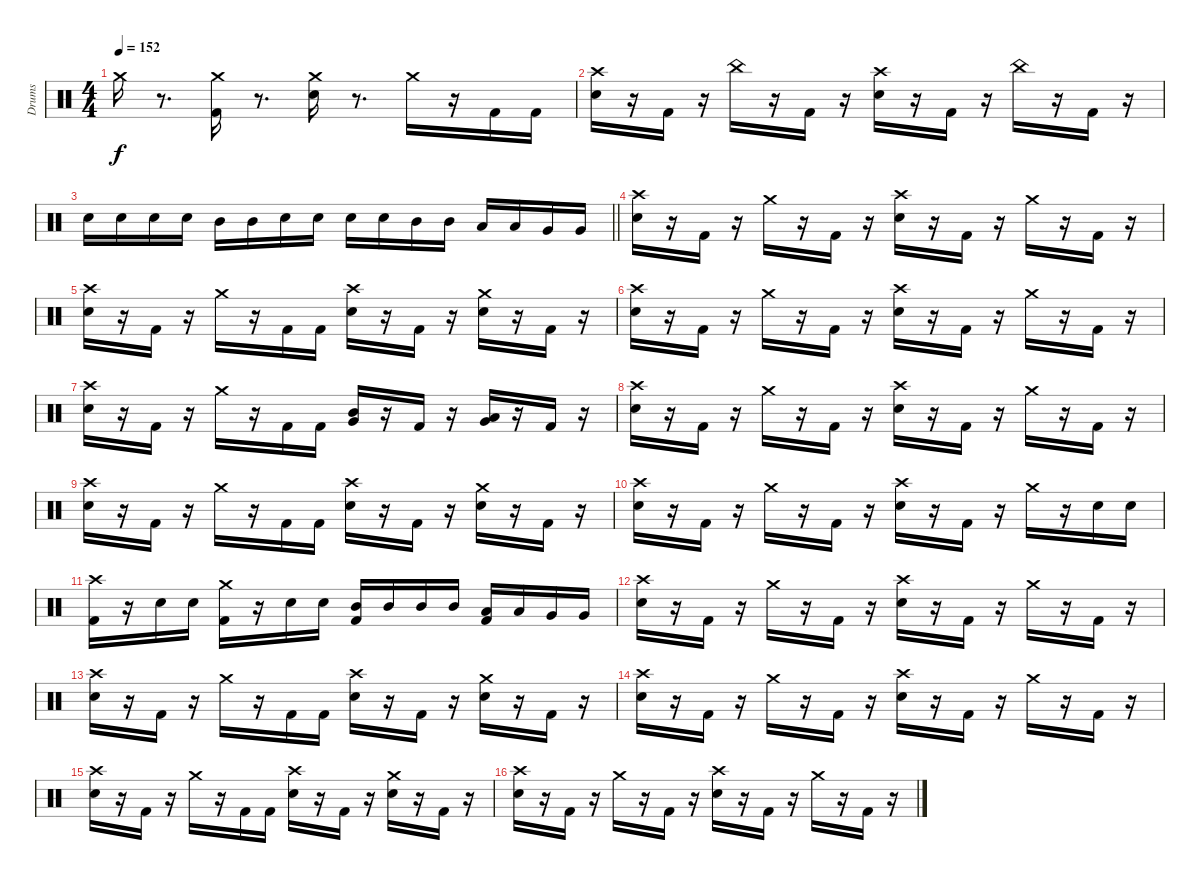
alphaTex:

\track ("Drums" "Drums") {instrument percussion}
\staff {score}
\articulation defaults
\ts (4 4)
\tempo 152
\clef neutral
\ks c "Crash medium (hit)".16{dy f}
r.8{d} ("Kick (hit) 2" "Crash medium (hit)").16 r.8{d} ("Snare (hit) 2" "Crash medium (hit)").16 r.8{d} "Crash medium (hit)".16 r.16 "Kick (hit) 2".16 "Kick (hit) 2".16 |
("Snare (hit) 2" "Crash high (hit)").16 r.16 "Kick (hit) 2".16 r.16 "China (hit)".16 r.16 "Kick (hit) 2".16 r.16 ("Snare (hit) 2" "Crash high (hit)").16 r.16 "Kick (hit) 2".16 r.16 "China (hit)".16 r.16 "Kick (hit) 2".16 r.16 |
\barLineRight lightlight "Snare (hit) 2".16 "Snare (hit) 2".16 "Snare (hit) 2".16 "Snare (hit) 2".16 "Mid Tom (hit)".16 "Mid Tom (hit)".16 "Snare (hit) 2".16 "Snare (hit) 2".16 "Snare (hit) 2".16 "Snare (hit) 2".16 "Mid Tom (hit)".16 "Mid Tom (hit)".16 "Low Tom (hit)".16 "Low Tom (hit)".16 "Very Low Tom (hit)".16 "Very Low Tom (hit)".16
|
\section ("" " ")
("Snare (hit) 2" "Crash high (hit)").16 r.16 "Kick (hit) 2".16 r.16 "Crash medium (hit)".16 r.16 "Kick (hit) 2".16 r.16 ("Snare (hit) 2" "Crash high (hit)").16 r.16 "Kick (hit) 2".16 r.16 "Crash medium (hit)".16 r.16 "Kick (hit) 2".16 r.16 |
("Snare (hit) 2" "Crash high (hit)").16 r.16 "Kick (hit) 2".16 r.16 "Crash medium (hit)".16 r.16 "Kick (hit) 2".16 "Kick (hit) 2".16 ("Snare (hit) 2" "Crash high (hit)").16 r.16 "Kick (hit) 2".16 r.16 ("Snare (hit) 2" "Crash medium (hit)").16 r.16 "Kick (hit) 2".16 r.16 |
("Snare (hit) 2" "Crash high (hit)").16 r.16 "Kick (hit) 2".16 r.16 "Crash medium (hit)".16 r.16 "Kick (hit) 2".16 r.16 ("Snare (hit) 2" "Crash high (hit)").16 r.16 "Kick (hit) 2".16 r.16 "Crash medium (hit)".16 r.16 "Kick (hit) 2".16 r.16 |
("Snare (hit) 2" "Crash high (hit)").16 r.16 "Kick (hit) 2".16 r.16 "Crash medium (hit)".16 r.16 "Kick (hit) 2".16 "Kick (hit) 2".16 ("Mid Tom (hit)" "Very Low Tom (hit)").16 r.16 "Kick (hit) 2".16 r.16 ("Low Tom (hit)" "Very Low Tom (hit)").16 r.16 "Kick (hit) 2".16 r.16 |
("Snare (hit) 2" "Crash high (hit)").16 r.16 "Kick (hit) 2".16 r.16 "Crash medium (hit)".16 r.16 "Kick (hit) 2".16 r.16 ("Snare (hit) 2" "Crash high (hit)").16 r.16 "Kick (hit) 2".16 r.16 "Crash medium (hit)".16 r.16 "Kick (hit) 2".16 r.16 |
("Snare (hit) 2" "Crash high (hit)").16 r.16 "Kick (hit) 2".16 r.16 "Crash medium (hit)".16 r.16 "Kick (hit) 2".16 "Kick (hit) 2".16 ("Snare (hit) 2" "Crash high (hit)").16 r.16 "Kick (hit) 2".16 r.16 ("Snare (hit) 2" "Crash medium (hit)").16 r.16 "Kick (hit) 2".16 r.16 |
("Snare (hit) 2" "Crash high (hit)").16 r.16 "Kick (hit) 2".16 r.16 "Crash medium (hit)".16 r.16 "Kick (hit) 2".16 r.16 ("Snare (hit) 2" "Crash high (hit)").16 r.16 "Kick (hit) 2".16 r.16 "Crash medium (hit)".16 r.16 "Snare (hit) 2".16 "Snare (hit) 2".16 |
("Kick (hit) 2" "Crash high (hit)").16 r.16 "Snare (hit) 2".16 "Snare (hit) 2".16 ("Kick (hit) 2" "Crash medium (hit)").16 r.16 "Snare (hit) 2".16 "Snare (hit) 2".16 ("Kick (hit) 2" "Mid Tom (hit)").16 "Mid Tom (hit)".16 "Mid Tom (hit)".16 "Mid Tom (hit)".16 ("Kick (hit) 2" "Low Tom (hit)").16 "Low Tom (hit)".16 "Very Low Tom (hit)".16 "Very Low Tom (hit)".16 |
("Snare (hit) 2" "Crash high (hit)").16 r.16 "Kick (hit) 2".16 r.16 "Crash medium (hit)".16 r.16 "Kick (hit) 2".16 r.16 ("Snare (hit) 2" "Crash high (hit)").16 r.16 "Kick (hit) 2".16 r.16 "Crash medium (hit)".16 r.16 "Kick (hit) 2".16 r.16 |
("Snare (hit) 2" "Crash high (hit)").16 r.16 "Kick (hit) 2".16 r.16 "Crash medium (hit)".16 r.16 "Kick (hit) 2".16 "Kick (hit) 2".16 ("Snare (hit) 2" "Crash high (hit)").16 r.16 "Kick (hit) 2".16 r.16 ("Snare (hit) 2" "Crash medium (hit)").16 r.16 "Kick (hit) 2".16 r.16 |
("Snare (hit) 2" "Crash high (hit)").16 r.16 "Kick (hit) 2".16 r.16 "Crash medium (hit)".16 r.16 "Kick (hit) 2".16 r.16 ("Snare (hit) 2" "Crash high (hit)").16 r.16 "Kick (hit) 2".16 r.16 "Crash medium (hit)".16 r.16 "Kick (hit) 2".16 r.16 |
("Snare (hit) 2" "Crash high (hit)").16 r.16 "Kick (hit) 2".16 r.16 "Crash medium (hit)".16 r.16 "Kick (hit) 2".16 "Kick (hit) 2".16 ("Snare (hit) 2" "Crash high (hit)").16 r.16 "Kick (hit) 2".16 r.16 ("Snare (hit) 2" "Crash medium (hit)").16 r.16 "Kick (hit) 2".16 r.16 |
("Snare (hit) 2" "Crash high (hit)").16 r.16 "Kick (hit) 2".16 r.16 "Crash medium (hit)".16 r.16 "Kick (hit) 2".16 r.16 ("Snare (hit) 2" "Crash high (hit)").16 r.16 "Kick (hit) 2".16 r.16 "Crash medium (hit)".16 r.16 "Kick (hit) 2".16 r.16
